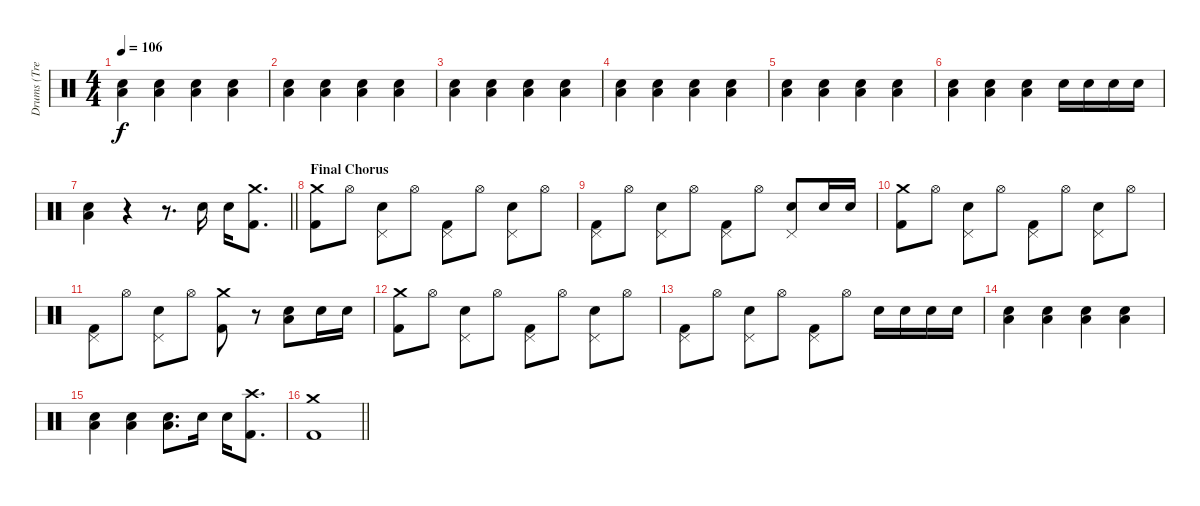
\track ("Drums (Tre Cool)" "Drums (Tre") {instrument percussion}
\staff {score}
\articulation defaults
\ts (4 4)
\tempo 106
\clef neutral
\ks c
("Electric Snare (hit)" "Low Floor Tom (hit)").4{dy f} ("Electric Snare (hit)" "Low Floor Tom (hit)").4 ("Electric Snare (hit)" "Low Floor Tom (hit)").4 ("Electric Snare (hit)" "Low Floor Tom (hit)").4 |
("Electric Snare (hit)" "Low Floor Tom (hit)").4 ("Electric Snare (hit)" "Low Floor Tom (hit)").4 ("Electric Snare (hit)" "Low Floor Tom (hit)").4 ("Electric Snare (hit)" "Low Floor Tom (hit)").4 |
("Electric Snare (hit)" "Low Floor Tom (hit)").4 ("Electric Snare (hit)" "Low Floor Tom (hit)").4 ("Electric Snare (hit)" "Low Floor Tom (hit)").4 ("Electric Snare (hit)" "Low Floor Tom (hit)").4 |
("Electric Snare (hit)" "Low Floor Tom (hit)").4 ("Electric Snare (hit)" "Low Floor Tom (hit)").4 ("Electric Snare (hit)" "Low Floor Tom (hit)").4 ("Electric Snare (hit)" "Low Floor Tom (hit)").4 |
("Electric Snare (hit)" "Low Floor Tom (hit)").4 ("Electric Snare (hit)" "Low Floor Tom (hit)").4 ("Electric Snare (hit)" "Low Floor Tom (hit)").4 ("Electric Snare (hit)" "Low Floor Tom (hit)").4 |
("Electric Snare (hit)" "Low Floor Tom (hit)").4 ("Electric Snare (hit)" "Low Floor Tom (hit)").4 ("Electric Snare (hit)" "Low Floor Tom (hit)").4 "Electric Snare (hit)".16 "Electric Snare (hit)".16 "Electric Snare (hit)".16 "Electric Snare (hit)".16 |
\barLineRight lightlight
("Electric Snare (hit)" "Low Floor Tom (hit)").4 r.4 r.8{d} "Electric Snare (hit)".16 "Electric Snare (hit)".16 ("Crash medium (hit)" "Kick (hit) 2").8{d} |
\section ("" "Final Chorus")
("Crash medium (hit)" "Kick (hit) 2").8 "Hi-Hat (open)".8 ("Pedal Hi-Hat (hit)" "Electric Snare (hit)").8 "Hi-Hat (open)".8 ("Pedal Hi-Hat (hit)" "Kick (hit) 2").8 "Hi-Hat (open)".8 ("Pedal Hi-Hat (hit)" "Electric Snare (hit)").8 "Hi-Hat (open)".8 |
("Pedal Hi-Hat (hit)" "Kick (hit) 2").8 "Hi-Hat (open)".8 ("Pedal Hi-Hat (hit)" "Electric Snare (hit)").8 "Hi-Hat (open)".8 ("Pedal Hi-Hat (hit)" "Kick (hit) 2").8 "Hi-Hat (open)".8 ("Pedal Hi-Hat (hit)" "Electric Snare (hit)").8 "Electric Snare (hit)".16 "Electric Snare (hit)".16 |
("Crash medium (hit)" "Kick (hit) 2").8 "Hi-Hat (open)".8 ("Pedal Hi-Hat (hit)" "Electric Snare (hit)").8 "Hi-Hat (open)".8 ("Pedal Hi-Hat (hit)" "Kick (hit) 2").8 "Hi-Hat (open)".8 ("Pedal Hi-Hat (hit)" "Electric Snare (hit)").8 "Hi-Hat (open)".8 |
("Pedal Hi-Hat (hit)" "Kick (hit) 2").8 "Hi-Hat (open)".8 ("Pedal Hi-Hat (hit)" "Electric Snare (hit)").8 "Hi-Hat (open)".8 ("Crash medium (hit)" "Kick (hit) 2").8 r.8 ("Electric Snare (hit)" "Low Floor Tom (hit)").8 "Electric Snare (hit)".16 "Electric Snare (hit)".16 |
("Crash medium (hit)" "Kick (hit) 2").8 "Hi-Hat (open)".8 ("Pedal Hi-Hat (hit)" "Electric Snare (hit)").8 "Hi-Hat (open)".8 ("Pedal Hi-Hat (hit)" "Kick (hit) 2").8 "Hi-Hat (open)".8 ("Pedal Hi-Hat (hit)" "Electric Snare (hit)").8 "Hi-Hat (open)".8 |
("Pedal Hi-Hat (hit)" "Kick (hit) 2").8 "Hi-Hat (open)".8 ("Pedal Hi-Hat (hit)" "Electric Snare (hit)").8 "Hi-Hat (open)".8 ("Pedal Hi-Hat (hit)" "Kick (hit) 2").8 "Hi-Hat (open)".8 "Electric Snare (hit)".16 "Electric Snare (hit)".16 "Electric Snare (hit)".16 "Electric Snare (hit)".16 |
("Electric Snare (hit)" "Low Floor Tom (hit)").4 ("Electric Snare (hit)" "Low Floor Tom (hit)").4 ("Electric Snare (hit)" "Low Floor Tom (hit)").4 ("Electric Snare (hit)" "Low Floor Tom (hit)").4 |
("Electric Snare (hit)" "Low Floor Tom (hit)").4 ("Electric Snare (hit)" "Low Floor Tom (hit)").4 ("Electric Snare (hit)" "Low Floor Tom (hit)").8{d} "Electric Snare (hit)".16 "Electric Snare (hit)".16 ("Crash high (hit)" "Kick (hit) 2").8{d} |
\barLineRight lightlight
("Crash medium (hit)" "Kick (hit) 2").1
